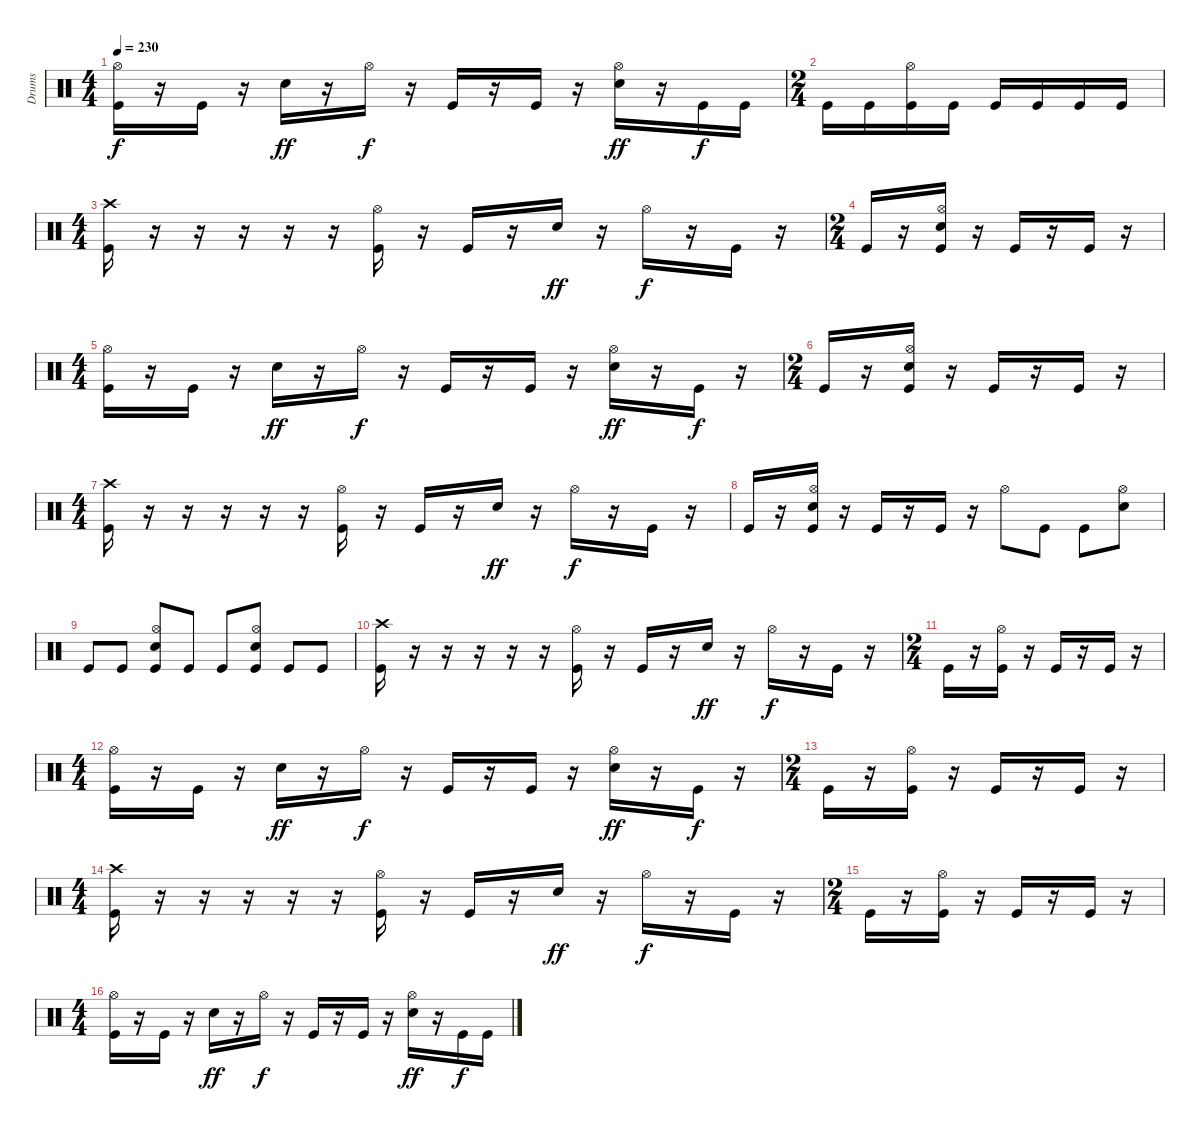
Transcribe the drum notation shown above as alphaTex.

\track ("Drums" "Drums") {instrument percussion}
\staff {score}
\articulation defaults
\ts (4 4)
\tempo 230
\clef neutral
\ks c
("Kick (hit)" "Hi-Hat (open)").16{dy f} r.16 "Kick (hit)".16 r.16 "Snare (hit) 2".16{dy ff} r.16 "Hi-Hat (open)".16{dy f} r.16 "Kick (hit)".16 r.16 "Kick (hit)".16 r.16 ("Snare (hit) 2" "Hi-Hat (open)").16{dy ff} r.16 "Kick (hit)".16{dy f} "Kick (hit)".16 |
\ts (2 4)
"Kick (hit)".16 "Kick (hit)".16 ("Kick (hit)" "Hi-Hat (open)").16 "Kick (hit)".16 "Kick (hit)".16 "Kick (hit)".16 "Kick (hit)".16 "Kick (hit)".16 |
\ts (4 4)
("Kick (hit)" "Crash high (hit)").16 r.16 r.16 r.16 r.16 r.16 ("Kick (hit)" "Hi-Hat (open)").16 r.16 "Kick (hit)".16 r.16 "Snare (hit) 2".16{dy ff} r.16 "Hi-Hat (open)".16{dy f} r.16 "Kick (hit)".16 r.16 |
\ts (2 4)
"Kick (hit)".16 r.16 ("Kick (hit)" "Snare (hit) 2" "Hi-Hat (open)").16 r.16 "Kick (hit)".16 r.16 "Kick (hit)".16 r.16 |
\ts (4 4)
("Kick (hit)" "Hi-Hat (open)").16 r.16 "Kick (hit)".16 r.16 "Snare (hit) 2".16{dy ff} r.16 "Hi-Hat (open)".16{dy f} r.16 "Kick (hit)".16 r.16 "Kick (hit)".16 r.16 ("Snare (hit) 2" "Hi-Hat (open)").16{dy ff} r.16 "Kick (hit)".16{dy f} r.16 |
\ts (2 4)
"Kick (hit)".16 r.16 ("Kick (hit)" "Snare (hit) 2" "Hi-Hat (open)").16 r.16 "Kick (hit)".16 r.16 "Kick (hit)".16 r.16 |
\ts (4 4)
("Kick (hit)" "Crash high (hit)").16 r.16 r.16 r.16 r.16 r.16 ("Kick (hit)" "Hi-Hat (open)").16 r.16 "Kick (hit)".16 r.16 "Snare (hit) 2".16{dy ff} r.16 "Hi-Hat (open)".16{dy f} r.16 "Kick (hit)".16 r.16 |
"Kick (hit)".16 r.16 ("Kick (hit)" "Snare (hit) 2" "Hi-Hat (open)").16 r.16 "Kick (hit)".16 r.16 "Kick (hit)".16 r.16 "Hi-Hat (open)".8 "Kick (hit)".8 "Kick (hit)".8 ("Snare (hit) 2" "Hi-Hat (open)").8 |
"Kick (hit)".8 "Kick (hit)".8 ("Kick (hit)" "Snare (hit) 2" "Hi-Hat (open)").8 "Kick (hit)".8 "Kick (hit)".8 ("Kick (hit)" "Snare (hit) 2" "Hi-Hat (open)").8 "Kick (hit)".8 "Kick (hit)".8 |
("Kick (hit)" "Crash high (hit)").16 r.16 r.16 r.16 r.16 r.16 ("Kick (hit)" "Hi-Hat (open)").16 r.16 "Kick (hit)".16 r.16 "Snare (hit) 2".16{dy ff} r.16 "Hi-Hat (open)".16{dy f} r.16 "Kick (hit)".16 r.16 |
\ts (2 4)
"Kick (hit)".16 r.16 ("Kick (hit)" "Hi-Hat (open)").16 r.16 "Kick (hit)".16 r.16 "Kick (hit)".16 r.16 |
\ts (4 4)
("Kick (hit)" "Hi-Hat (open)").16 r.16 "Kick (hit)".16 r.16 "Snare (hit) 2".16{dy ff} r.16 "Hi-Hat (open)".16{dy f} r.16 "Kick (hit)".16 r.16 "Kick (hit)".16 r.16 ("Snare (hit) 2" "Hi-Hat (open)").16{dy ff} r.16 "Kick (hit)".16{dy f} r.16 |
\ts (2 4)
"Kick (hit)".16 r.16 ("Kick (hit)" "Hi-Hat (open)").16 r.16 "Kick (hit)".16 r.16 "Kick (hit)".16 r.16 |
\ts (4 4)
("Kick (hit)" "Crash high (hit)").16 r.16 r.16 r.16 r.16 r.16 ("Kick (hit)" "Hi-Hat (open)").16 r.16 "Kick (hit)".16 r.16 "Snare (hit) 2".16{dy ff} r.16 "Hi-Hat (open)".16{dy f} r.16 "Kick (hit)".16 r.16 |
\ts (2 4)
"Kick (hit)".16 r.16 ("Kick (hit)" "Hi-Hat (open)").16 r.16 "Kick (hit)".16 r.16 "Kick (hit)".16 r.16 |
\ts (4 4)
("Kick (hit)" "Hi-Hat (open)").16 r.16 "Kick (hit)".16 r.16 "Snare (hit) 2".16{dy ff} r.16 "Hi-Hat (open)".16{dy f} r.16 "Kick (hit)".16 r.16 "Kick (hit)".16 r.16 ("Snare (hit) 2" "Hi-Hat (open)").16{dy ff} r.16 "Kick (hit)".16{dy f} "Kick (hit)".16
